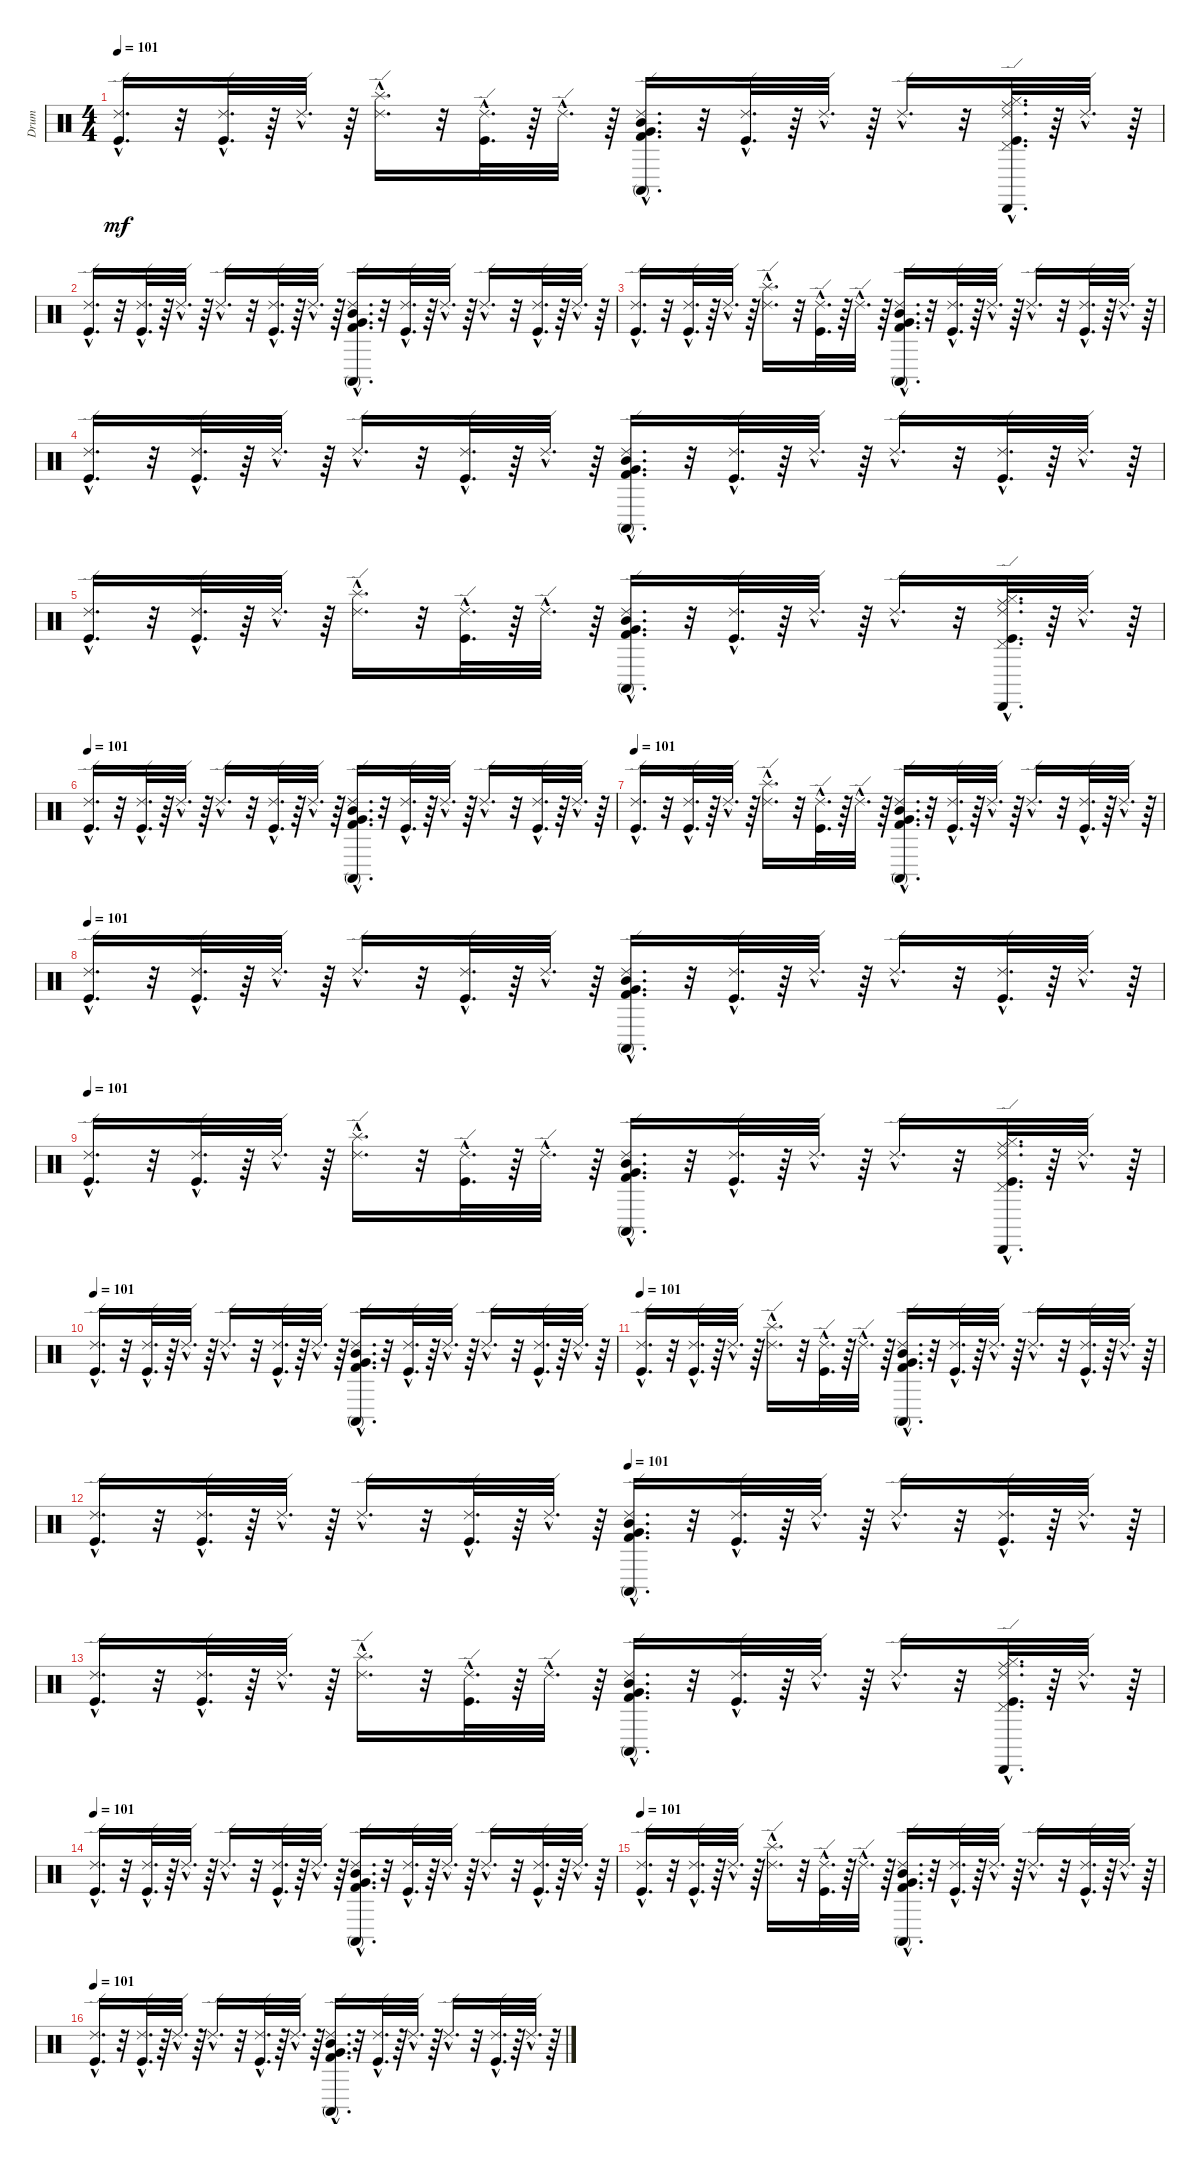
\track ("Drum" "Drum") {instrument percussion}
\staff {score}
\articulation defaults
\ts (4 4)
\tempo 101
\clef neutral
\ks c
("Kick (hit)"{hac} "Ride (edge) 2"{hac}).16{d dy mf} r.32 ("Kick (hit)"{hac} "Ride (edge) 2"{hac}).32{d} r.64 "Ride (edge) 2"{hac}.32{d} r.64 ("Splash (hit)"{hac} "Ride (edge) 2"{hac}).16{d} r.32 ("Ride (edge) 2"{hac} "Kick (hit)"{hac}).32{d} r.64 "Ride (edge) 2"{hac}.32{d} r.64 ("Conga high (mute)"{hac} "Mid Tom (hit)"{hac} "Very Low Tom (hit)"{hac} "Kick (hit) 2"{hac} "Ride (edge) 2"{hac}).16{d} r.32 ("Kick (hit)"{hac} "Ride (edge) 2"{hac}).32{d} r.64 "Ride (edge) 2"{hac}.32{d} r.64 "Ride (edge) 2"{hac}.16{d} r.32 ("Kick (hit)"{hac} "Ride (edge) 2"{hac} "Ride (middle)"{hac} "Pedal Hi-Hat (hit)"{hac} "Hi-Hat (closed)"{hac} "Cabasa (hit)"{hac}).32{d} r.64 "Ride (edge) 2"{hac}.32{d} r.64 |
("Kick (hit)"{hac} "Ride (edge) 2"{hac}).16{d} r.32 ("Kick (hit)"{hac} "Ride (edge) 2"{hac}).32{d} r.64 "Ride (edge) 2"{hac}.32{d} r.64 "Ride (edge) 2"{hac}.16{d} r.32 ("Ride (edge) 2"{hac} "Kick (hit)"{hac}).32{d} r.64 "Ride (edge) 2"{hac}.32{d} r.64 ("Conga high (mute)"{hac} "Mid Tom (hit)"{hac} "Very Low Tom (hit)"{hac} "Kick (hit) 2"{hac} "Ride (edge) 2"{hac}).16{d} r.32 ("Kick (hit)"{hac} "Ride (edge) 2"{hac}).32{d} r.64 "Ride (edge) 2"{hac}.32{d} r.64 "Ride (edge) 2"{hac}.16{d} r.32 ("Kick (hit)"{hac} "Ride (edge) 2"{hac}).32{d} r.64 "Ride (edge) 2"{hac}.32{d} r.64 |
("Ride (edge) 2"{hac} "Kick (hit)"{hac}).16{d} r.32 ("Ride (edge) 2"{hac} "Kick (hit)"{hac}).32{d} r.64 "Ride (edge) 2"{hac}.32{d} r.64 ("Splash (hit)"{hac} "Ride (edge) 2"{hac}).16{d} r.32 ("Kick (hit)"{hac} "Ride (edge) 2"{hac}).32{d} r.64 "Ride (edge) 2"{hac}.32{d} r.64 ("Ride (edge) 2"{hac} "Kick (hit) 2"{hac} "Very Low Tom (hit)"{hac} "Mid Tom (hit)"{hac} "Conga high (mute)"{hac}).16{d} r.32 ("Ride (edge) 2"{hac} "Kick (hit)"{hac}).32{d} r.64 "Ride (edge) 2"{hac}.32{d} r.64 "Ride (edge) 2"{hac}.16{d} r.32 ("Ride (edge) 2"{hac} "Kick (hit)"{hac}).32{d} r.64 "Ride (edge) 2"{hac}.32{d} r.64 |
("Ride (edge) 2"{hac} "Kick (hit)"{hac}).16{d} r.32 ("Ride (edge) 2"{hac} "Kick (hit)"{hac}).32{d} r.64 "Ride (edge) 2"{hac}.32{d} r.64 "Ride (edge) 2"{hac}.16{d} r.32 ("Kick (hit)"{hac} "Ride (edge) 2"{hac}).32{d} r.64 "Ride (edge) 2"{hac}.32{d} r.64 ("Ride (edge) 2"{hac} "Kick (hit) 2"{hac} "Very Low Tom (hit)"{hac} "Mid Tom (hit)"{hac} "Conga high (mute)"{hac}).16{d} r.32 ("Ride (edge) 2"{hac} "Kick (hit)"{hac}).32{d} r.64 "Ride (edge) 2"{hac}.32{d} r.64 "Ride (edge) 2"{hac}.16{d} r.32 ("Ride (edge) 2"{hac} "Kick (hit)"{hac}).32{d} r.64 "Ride (edge) 2"{hac}.32{d} r.64 |
("Ride (edge) 2"{hac} "Kick (hit)"{hac}).16{d} r.32 ("Ride (edge) 2"{hac} "Kick (hit)"{hac}).32{d} r.64 "Ride (edge) 2"{hac}.32{d} r.64 ("Ride (edge) 2"{hac} "Splash (hit)"{hac}).16{d} r.32 ("Kick (hit)"{hac} "Ride (edge) 2"{hac}).32{d} r.64 "Ride (edge) 2"{hac}.32{d} r.64 ("Ride (edge) 2"{hac} "Kick (hit) 2"{hac} "Very Low Tom (hit)"{hac} "Mid Tom (hit)"{hac} "Conga high (mute)"{hac}).16{d} r.32 ("Ride (edge) 2"{hac} "Kick (hit)"{hac}).32{d} r.64 "Ride (edge) 2"{hac}.32{d} r.64 "Ride (edge) 2"{hac}.16{d} r.32 ("Cabasa (hit)"{hac} "Hi-Hat (closed)"{hac} "Pedal Hi-Hat (hit)"{hac} "Ride (middle)"{hac} "Ride (edge) 2"{hac} "Kick (hit)"{hac}).32{d} r.64 "Ride (edge) 2"{hac}.32{d} r.64 |
\tempo 101
("Kick (hit)"{hac} "Ride (edge) 2"{hac}).16{d} r.32 ("Kick (hit)"{hac} "Ride (edge) 2"{hac}).32{d} r.64 "Ride (edge) 2"{hac}.32{d} r.64 "Ride (edge) 2"{hac}.16{d} r.32 ("Ride (edge) 2"{hac} "Kick (hit)"{hac}).32{d} r.64 "Ride (edge) 2"{hac}.32{d} r.64 ("Conga high (mute)"{hac} "Mid Tom (hit)"{hac} "Very Low Tom (hit)"{hac} "Kick (hit) 2"{hac} "Ride (edge) 2"{hac}).16{d} r.32 ("Kick (hit)"{hac} "Ride (edge) 2"{hac}).32{d} r.64 "Ride (edge) 2"{hac}.32{d} r.64 "Ride (edge) 2"{hac}.16{d} r.32 ("Kick (hit)"{hac} "Ride (edge) 2"{hac}).32{d} r.64 "Ride (edge) 2"{hac}.32{d} r.64 |
\tempo 101
("Ride (edge) 2"{hac} "Kick (hit)"{hac}).16{d} r.32 ("Ride (edge) 2"{hac} "Kick (hit)"{hac}).32{d} r.64 "Ride (edge) 2"{hac}.32{d} r.64 ("Splash (hit)"{hac} "Ride (edge) 2"{hac}).16{d} r.32 ("Kick (hit)"{hac} "Ride (edge) 2"{hac}).32{d} r.64 "Ride (edge) 2"{hac}.32{d} r.64 ("Ride (edge) 2"{hac} "Kick (hit) 2"{hac} "Very Low Tom (hit)"{hac} "Mid Tom (hit)"{hac} "Conga high (mute)"{hac}).16{d} r.32 ("Ride (edge) 2"{hac} "Kick (hit)"{hac}).32{d} r.64 "Ride (edge) 2"{hac}.32{d} r.64 "Ride (edge) 2"{hac}.16{d} r.32 ("Ride (edge) 2"{hac} "Kick (hit)"{hac}).32{d} r.64 "Ride (edge) 2"{hac}.32{d} r.64 |
\tempo 101
("Ride (edge) 2"{hac} "Kick (hit)"{hac}).16{d} r.32 ("Ride (edge) 2"{hac} "Kick (hit)"{hac}).32{d} r.64 "Ride (edge) 2"{hac}.32{d} r.64 "Ride (edge) 2"{hac}.16{d} r.32 ("Kick (hit)"{hac} "Ride (edge) 2"{hac}).32{d} r.64 "Ride (edge) 2"{hac}.32{d} r.64 ("Ride (edge) 2"{hac} "Kick (hit) 2"{hac} "Very Low Tom (hit)"{hac} "Mid Tom (hit)"{hac} "Conga high (mute)"{hac}).16{d} r.32 ("Ride (edge) 2"{hac} "Kick (hit)"{hac}).32{d} r.64 "Ride (edge) 2"{hac}.32{d} r.64 "Ride (edge) 2"{hac}.16{d} r.32 ("Ride (edge) 2"{hac} "Kick (hit)"{hac}).32{d} r.64 "Ride (edge) 2"{hac}.32{d} r.64 |
\tempo 101
("Ride (edge) 2"{hac} "Kick (hit)"{hac}).16{d} r.32 ("Ride (edge) 2"{hac} "Kick (hit)"{hac}).32{d} r.64 "Ride (edge) 2"{hac}.32{d} r.64 ("Ride (edge) 2"{hac} "Splash (hit)"{hac}).16{d} r.32 ("Kick (hit)"{hac} "Ride (edge) 2"{hac}).32{d} r.64 "Ride (edge) 2"{hac}.32{d} r.64 ("Ride (edge) 2"{hac} "Kick (hit) 2"{hac} "Very Low Tom (hit)"{hac} "Mid Tom (hit)"{hac} "Conga high (mute)"{hac}).16{d} r.32 ("Ride (edge) 2"{hac} "Kick (hit)"{hac}).32{d} r.64 "Ride (edge) 2"{hac}.32{d} r.64 "Ride (edge) 2"{hac}.16{d} r.32 ("Cabasa (hit)"{hac} "Hi-Hat (closed)"{hac} "Pedal Hi-Hat (hit)"{hac} "Ride (middle)"{hac} "Ride (edge) 2"{hac} "Kick (hit)"{hac}).32{d} r.64 "Ride (edge) 2"{hac}.32{d} r.64 |
\tempo 101
("Kick (hit)"{hac} "Ride (edge) 2"{hac}).16{d} r.32 ("Kick (hit)"{hac} "Ride (edge) 2"{hac}).32{d} r.64 "Ride (edge) 2"{hac}.32{d} r.64 "Ride (edge) 2"{hac}.16{d} r.32 ("Ride (edge) 2"{hac} "Kick (hit)"{hac}).32{d} r.64 "Ride (edge) 2"{hac}.32{d} r.64 ("Conga high (mute)"{hac} "Mid Tom (hit)"{hac} "Very Low Tom (hit)"{hac} "Kick (hit) 2"{hac} "Ride (edge) 2"{hac}).16{d} r.32 ("Kick (hit)"{hac} "Ride (edge) 2"{hac}).32{d} r.64 "Ride (edge) 2"{hac}.32{d} r.64 "Ride (edge) 2"{hac}.16{d} r.32 ("Kick (hit)"{hac} "Ride (edge) 2"{hac}).32{d} r.64 "Ride (edge) 2"{hac}.32{d} r.64 |
\tempo 101
("Ride (edge) 2"{hac} "Kick (hit)"{hac}).16{d} r.32 ("Ride (edge) 2"{hac} "Kick (hit)"{hac}).32{d} r.64 "Ride (edge) 2"{hac}.32{d} r.64 ("Splash (hit)"{hac} "Ride (edge) 2"{hac}).16{d} r.32 ("Kick (hit)"{hac} "Ride (edge) 2"{hac}).32{d} r.64 "Ride (edge) 2"{hac}.32{d} r.64 ("Ride (edge) 2"{hac} "Kick (hit) 2"{hac} "Very Low Tom (hit)"{hac} "Mid Tom (hit)"{hac} "Conga high (mute)"{hac}).16{d} r.32 ("Ride (edge) 2"{hac} "Kick (hit)"{hac}).32{d} r.64 "Ride (edge) 2"{hac}.32{d} r.64 "Ride (edge) 2"{hac}.16{d} r.32 ("Ride (edge) 2"{hac} "Kick (hit)"{hac}).32{d} r.64 "Ride (edge) 2"{hac}.32{d} r.64 |
\tempo (101 0.5)
("Ride (edge) 2"{hac} "Kick (hit)"{hac}).16{d} r.32 ("Ride (edge) 2"{hac} "Kick (hit)"{hac}).32{d} r.64 "Ride (edge) 2"{hac}.32{d} r.64 "Ride (edge) 2"{hac}.16{d} r.32 ("Kick (hit)"{hac} "Ride (edge) 2"{hac}).32{d} r.64 "Ride (edge) 2"{hac}.32{d} r.64 ("Ride (edge) 2"{hac} "Kick (hit) 2"{hac} "Very Low Tom (hit)"{hac} "Mid Tom (hit)"{hac} "Conga high (mute)"{hac}).16{d} r.32 ("Ride (edge) 2"{hac} "Kick (hit)"{hac}).32{d} r.64 "Ride (edge) 2"{hac}.32{d} r.64 "Ride (edge) 2"{hac}.16{d} r.32 ("Ride (edge) 2"{hac} "Kick (hit)"{hac}).32{d} r.64 "Ride (edge) 2"{hac}.32{d} r.64 |
("Ride (edge) 2"{hac} "Kick (hit)"{hac}).16{d} r.32 ("Ride (edge) 2"{hac} "Kick (hit)"{hac}).32{d} r.64 "Ride (edge) 2"{hac}.32{d} r.64 ("Ride (edge) 2"{hac} "Splash (hit)"{hac}).16{d} r.32 ("Kick (hit)"{hac} "Ride (edge) 2"{hac}).32{d} r.64 "Ride (edge) 2"{hac}.32{d} r.64 ("Ride (edge) 2"{hac} "Kick (hit) 2"{hac} "Very Low Tom (hit)"{hac} "Mid Tom (hit)"{hac} "Conga high (mute)"{hac}).16{d} r.32 ("Ride (edge) 2"{hac} "Kick (hit)"{hac}).32{d} r.64 "Ride (edge) 2"{hac}.32{d} r.64 "Ride (edge) 2"{hac}.16{d} r.32 ("Cabasa (hit)"{hac} "Hi-Hat (closed)"{hac} "Pedal Hi-Hat (hit)"{hac} "Ride (middle)"{hac} "Ride (edge) 2"{hac} "Kick (hit)"{hac}).32{d} r.64 "Ride (edge) 2"{hac}.32{d} r.64 |
\tempo 101
("Kick (hit)"{hac} "Ride (edge) 2"{hac}).16{d} r.32 ("Kick (hit)"{hac} "Ride (edge) 2"{hac}).32{d} r.64 "Ride (edge) 2"{hac}.32{d} r.64 "Ride (edge) 2"{hac}.16{d} r.32 ("Ride (edge) 2"{hac} "Kick (hit)"{hac}).32{d} r.64 "Ride (edge) 2"{hac}.32{d} r.64 ("Conga high (mute)"{hac} "Mid Tom (hit)"{hac} "Very Low Tom (hit)"{hac} "Kick (hit) 2"{hac} "Ride (edge) 2"{hac}).16{d} r.32 ("Kick (hit)"{hac} "Ride (edge) 2"{hac}).32{d} r.64 "Ride (edge) 2"{hac}.32{d} r.64 "Ride (edge) 2"{hac}.16{d} r.32 ("Kick (hit)"{hac} "Ride (edge) 2"{hac}).32{d} r.64 "Ride (edge) 2"{hac}.32{d} r.64 |
\tempo 101
("Ride (edge) 2"{hac} "Kick (hit)"{hac}).16{d} r.32 ("Ride (edge) 2"{hac} "Kick (hit)"{hac}).32{d} r.64 "Ride (edge) 2"{hac}.32{d} r.64 ("Splash (hit)"{hac} "Ride (edge) 2"{hac}).16{d} r.32 ("Kick (hit)"{hac} "Ride (edge) 2"{hac}).32{d} r.64 "Ride (edge) 2"{hac}.32{d} r.64 ("Ride (edge) 2"{hac} "Kick (hit) 2"{hac} "Very Low Tom (hit)"{hac} "Mid Tom (hit)"{hac} "Conga high (mute)"{hac}).16{d} r.32 ("Ride (edge) 2"{hac} "Kick (hit)"{hac}).32{d} r.64 "Ride (edge) 2"{hac}.32{d} r.64 "Ride (edge) 2"{hac}.16{d} r.32 ("Ride (edge) 2"{hac} "Kick (hit)"{hac}).32{d} r.64 "Ride (edge) 2"{hac}.32{d} r.64 |
\tempo 101
("Ride (edge) 2"{hac} "Kick (hit)"{hac}).16{d} r.32 ("Ride (edge) 2"{hac} "Kick (hit)"{hac}).32{d} r.64 "Ride (edge) 2"{hac}.32{d} r.64 "Ride (edge) 2"{hac}.16{d} r.32 ("Kick (hit)"{hac} "Ride (edge) 2"{hac}).32{d} r.64 "Ride (edge) 2"{hac}.32{d} r.64 ("Ride (edge) 2"{hac} "Kick (hit) 2"{hac} "Very Low Tom (hit)"{hac} "Mid Tom (hit)"{hac} "Conga high (mute)"{hac}).16{d} r.32 ("Ride (edge) 2"{hac} "Kick (hit)"{hac}).32{d} r.64 "Ride (edge) 2"{hac}.32{d} r.64 "Ride (edge) 2"{hac}.16{d} r.32 ("Ride (edge) 2"{hac} "Kick (hit)"{hac}).32{d} r.64 "Ride (edge) 2"{hac}.32{d} r.64
